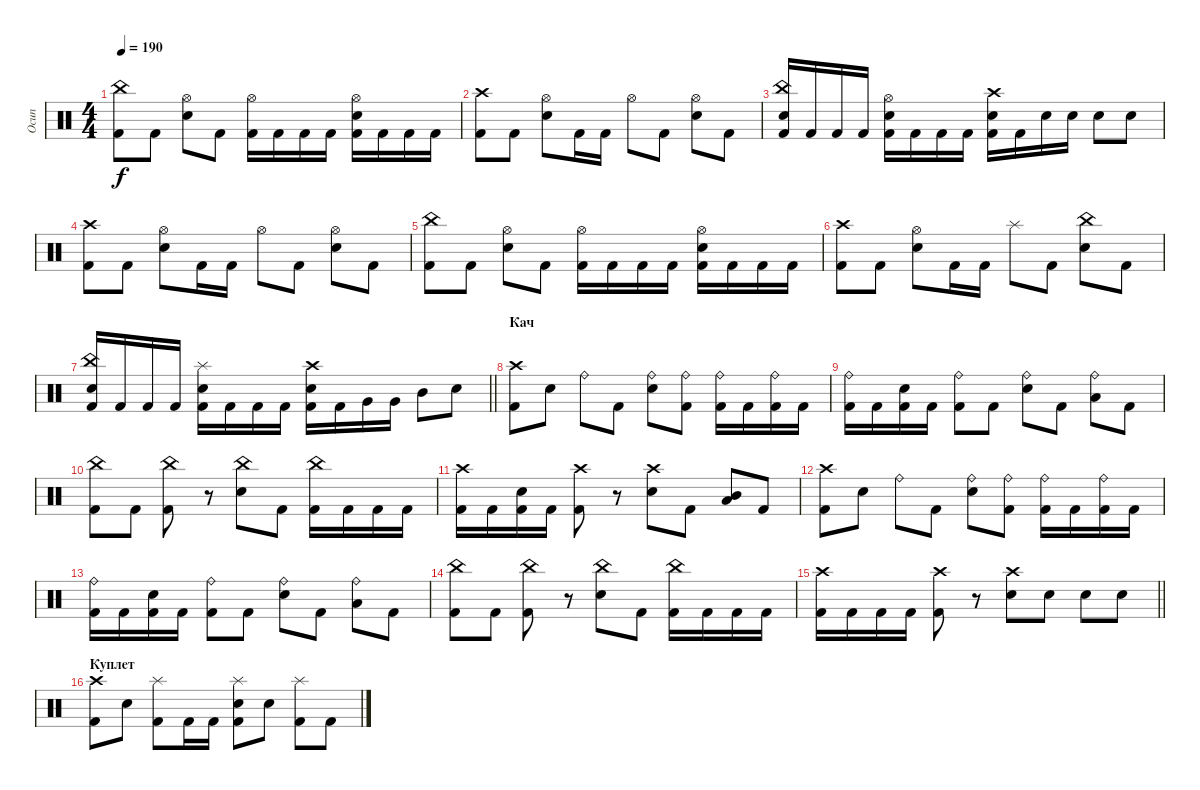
\track ("Осип" "Осип") {instrument percussion}
\staff {score}
\articulation defaults
\ts (4 4)
\tempo 190
\clef neutral
\ks c
("Kick (hit) 2" "China (hit)").8{dy f} "Kick (hit) 2".8 ("Electric Snare (hit)" "Hi-Hat (open)").8 "Kick (hit) 2".8 ("Kick (hit) 2" "Hi-Hat (open)").16 "Kick (hit) 2".16 "Kick (hit) 2".16 "Kick (hit) 2".16 ("Kick (hit) 2" "Electric Snare (hit)" "Hi-Hat (open)").16 "Kick (hit) 2".16 "Kick (hit) 2".16 "Kick (hit) 2".16 |
("Kick (hit) 2" "Crash high (hit)").8 "Kick (hit) 2".8 ("Electric Snare (hit)" "Hi-Hat (open)").8 "Kick (hit) 2".16 "Kick (hit) 2".16 "Hi-Hat (open)".8 "Kick (hit) 2".8 ("Electric Snare (hit)" "Hi-Hat (open)").8 "Kick (hit) 2".8 |
("Kick (hit) 2" "Electric Snare (hit)" "China (hit)").16 "Kick (hit) 2".16 "Kick (hit) 2".16 "Kick (hit) 2".16 ("Kick (hit) 2" "Electric Snare (hit)" "Hi-Hat (open)").16 "Kick (hit) 2".16 "Kick (hit) 2".16 "Kick (hit) 2".16 ("Kick (hit) 2" "Electric Snare (hit)" "Crash high (hit)").16 "Kick (hit) 2".16 "Electric Snare (hit)".16 "Electric Snare (hit)".16 "Electric Snare (hit)".8 "Electric Snare (hit)".8 |
("Kick (hit) 2" "Crash high (hit)").8 "Kick (hit) 2".8 ("Electric Snare (hit)" "Hi-Hat (open)").8 "Kick (hit) 2".16 "Kick (hit) 2".16 "Hi-Hat (open)".8 "Kick (hit) 2".8 ("Electric Snare (hit)" "Hi-Hat (open)").8 "Kick (hit) 2".8 |
("Kick (hit) 2" "China (hit)").8 "Kick (hit) 2".8 ("Electric Snare (hit)" "Hi-Hat (open)").8 "Kick (hit) 2".8 ("Kick (hit) 2" "Hi-Hat (open)").16 "Kick (hit) 2".16 "Kick (hit) 2".16 "Kick (hit) 2".16 ("Kick (hit) 2" "Electric Snare (hit)" "Hi-Hat (open)").16 "Kick (hit) 2".16 "Kick (hit) 2".16 "Kick (hit) 2".16 |
("Kick (hit) 2" "Crash high (hit)").8 "Kick (hit) 2".8 ("Electric Snare (hit)" "Hi-Hat (open)").8 "Kick (hit) 2".16 "Kick (hit) 2".16 "Splash (hit)".8 "Kick (hit) 2".8 ("Electric Snare (hit)" "China (hit)").8 "Kick (hit) 2".8 |
\barLineRight lightlight
("Kick (hit) 2" "Electric Snare (hit)" "China (hit)").16 "Kick (hit) 2".16 "Kick (hit) 2".16 "Kick (hit) 2".16 ("Kick (hit) 2" "Electric Snare (hit)" "Splash (hit)").16 "Kick (hit) 2".16 "Kick (hit) 2".16 "Kick (hit) 2".16 ("Kick (hit) 2" "Electric Snare (hit)" "Crash high (hit)").16 "Kick (hit) 2".16 "Very Low Tom (hit)".16 "Very Low Tom (hit)".16 "Mid Tom (hit)".8 "Electric Snare (hit)".8 |
\section ("" "Кач")
("Kick (hit) 2" "Crash high (hit)").8 "Electric Snare (hit)".8 "Ride (bell)".8 "Kick (hit) 2".8 ("Electric Snare (hit)" "Ride (bell)").8 ("Kick (hit) 2" "Ride (bell)").8 ("Kick (hit) 2" "Ride (bell)").16 "Kick (hit) 2".16 ("Kick (hit) 2" "Ride (bell)").16 "Kick (hit) 2".16 |
("Kick (hit) 2" "Ride (bell)").16 "Kick (hit) 2".16 ("Kick (hit) 2" "Electric Snare (hit)").16 "Kick (hit) 2".16 ("Kick (hit) 2" "Ride (bell)").8 "Kick (hit) 2".8 ("Electric Snare (hit)" "Ride (bell)").8 "Kick (hit) 2".8 ("Low Tom (hit)" "Ride (bell)").8 "Kick (hit) 2".8 |
("Kick (hit) 2" "China (hit)").8 "Kick (hit) 2".8 ("Kick (hit) 2" "China (hit)").8 r.8 ("Electric Snare (hit)" "China (hit)").8 "Kick (hit) 2".8 ("Kick (hit) 2" "China (hit)").16 "Kick (hit) 2".16 "Kick (hit) 2".16 "Kick (hit) 2".16 |
("Kick (hit) 2" "Crash high (hit)").16 "Kick (hit) 2".16 ("Kick (hit) 2" "Electric Snare (hit)").16 "Kick (hit) 2".16 ("Kick (hit) 2" "Crash high (hit)").8 r.8 ("Electric Snare (hit)" "Crash high (hit)").8 "Kick (hit) 2".8 ("Low Tom (hit)" "Mid Tom (hit)").8 "Kick (hit) 2".8 |
("Kick (hit) 2" "Crash high (hit)").8 "Electric Snare (hit)".8 "Ride (bell)".8 "Kick (hit) 2".8 ("Electric Snare (hit)" "Ride (bell)").8 ("Kick (hit) 2" "Ride (bell)").8 ("Kick (hit) 2" "Ride (bell)").16 "Kick (hit) 2".16 ("Kick (hit) 2" "Ride (bell)").16 "Kick (hit) 2".16 |
("Kick (hit) 2" "Ride (bell)").16 "Kick (hit) 2".16 ("Kick (hit) 2" "Electric Snare (hit)").16 "Kick (hit) 2".16 ("Kick (hit) 2" "Ride (bell)").8 "Kick (hit) 2".8 ("Electric Snare (hit)" "Ride (bell)").8 "Kick (hit) 2".8 ("Low Tom (hit)" "Ride (bell)").8 "Kick (hit) 2".8 |
("Kick (hit) 2" "China (hit)").8 "Kick (hit) 2".8 ("Kick (hit) 2" "China (hit)").8 r.8 ("Electric Snare (hit)" "China (hit)").8 "Kick (hit) 2".8 ("Kick (hit) 2" "China (hit)").16 "Kick (hit) 2".16 "Kick (hit) 2".16 "Kick (hit) 2".16 |
\barLineRight lightlight
("Kick (hit) 2" "Crash high (hit)").16 "Kick (hit) 2".16 "Kick (hit) 2".16 "Kick (hit) 2".16 ("Kick (hit) 2" "Crash high (hit)").8 r.8 ("Electric Snare (hit)" "Crash high (hit)").8 "Electric Snare (hit)".8 "Electric Snare (hit)".8 "Electric Snare (hit)".8 |
\section ("" "Куплет")
("Kick (hit) 2" "Crash high (hit)").8 "Electric Snare (hit)".8 ("Kick (hit) 2" "Splash (hit)").8 "Kick (hit) 2".16 "Kick (hit) 2".16 ("Electric Snare (hit)" "Kick (hit) 2" "Splash (hit)").8 "Electric Snare (hit)".8 ("Kick (hit) 2" "Splash (hit)").8 "Kick (hit) 2".8
